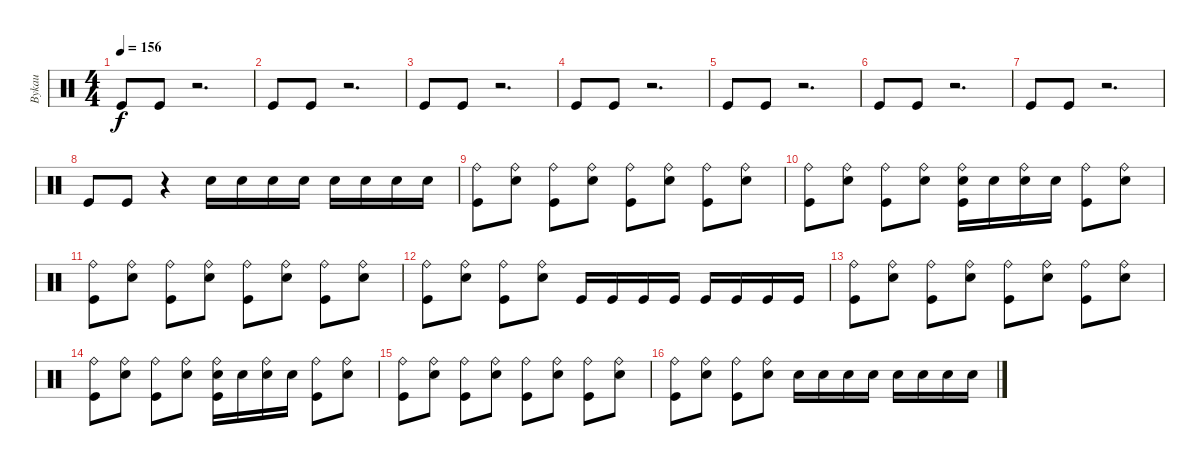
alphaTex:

\track ("Bykau" "Bykau") {instrument percussion}
\staff {score}
\articulation defaults
\ts (4 4)
\tempo 156
\clef neutral
\ks c "Kick (hit)".8{dy f} "Kick (hit)".8
r.2{d} |
"Kick (hit)".8 "Kick (hit)".8 r.2{d} |
"Kick (hit)".8 "Kick (hit)".8 r.2{d} |
"Kick (hit)".8 "Kick (hit)".8 r.2{d} |
"Kick (hit)".8 "Kick (hit)".8 r.2{d} |
"Kick (hit)".8 "Kick (hit)".8 r.2{d} |
"Kick (hit)".8 "Kick (hit)".8 r.2{d} |
"Kick (hit)".8 "Kick (hit)".8 r.4 "Electric Snare (hit)".16 "Electric Snare (hit)".16 "Electric Snare (hit)".16 "Electric Snare (hit)".16 "Electric Snare (hit)".16 "Electric Snare (hit)".16 "Electric Snare (hit)".16 "Electric Snare (hit)".16 |
("Ride (bell)" "Kick (hit)").8 ("Ride (bell)" "Electric Snare (hit)").8 ("Ride (bell)" "Kick (hit)").8 ("Ride (bell)" "Electric Snare (hit)").8 ("Ride (bell)" "Kick (hit)").8 ("Ride (bell)" "Electric Snare (hit)").8 ("Ride (bell)" "Kick (hit)").8 ("Ride (bell)" "Electric Snare (hit)").8 |
("Ride (bell)" "Kick (hit)").8 ("Ride (bell)" "Electric Snare (hit)").8 ("Ride (bell)" "Kick (hit)").8 ("Ride (bell)" "Electric Snare (hit)").8 ("Ride (bell)" "Electric Snare (hit)" "Kick (hit)").16 "Electric Snare (hit)".16 ("Ride (bell)" "Electric Snare (hit)").16 "Electric Snare (hit)".16 ("Ride (bell)" "Kick (hit)").8 ("Ride (bell)" "Electric Snare (hit)").8 |
("Ride (bell)" "Kick (hit)").8 ("Ride (bell)" "Electric Snare (hit)").8 ("Ride (bell)" "Kick (hit)").8 ("Ride (bell)" "Electric Snare (hit)").8 ("Ride (bell)" "Kick (hit)").8 ("Ride (bell)" "Electric Snare (hit)").8 ("Ride (bell)" "Kick (hit)").8 ("Ride (bell)" "Electric Snare (hit)").8 |
("Ride (bell)" "Kick (hit)").8 ("Ride (bell)" "Electric Snare (hit)").8 ("Ride (bell)" "Kick (hit)").8 ("Ride (bell)" "Electric Snare (hit)").8 "Kick (hit)".16 "Kick (hit)".16 "Kick (hit)".16 "Kick (hit)".16 "Kick (hit)".16 "Kick (hit)".16 "Kick (hit)".16 "Kick (hit)".16 |
("Ride (bell)" "Kick (hit)").8 ("Ride (bell)" "Electric Snare (hit)").8 ("Ride (bell)" "Kick (hit)").8 ("Ride (bell)" "Electric Snare (hit)").8 ("Ride (bell)" "Kick (hit)").8 ("Ride (bell)" "Electric Snare (hit)").8 ("Ride (bell)" "Kick (hit)").8 ("Ride (bell)" "Electric Snare (hit)").8 |
("Ride (bell)" "Kick (hit)").8 ("Ride (bell)" "Electric Snare (hit)").8 ("Ride (bell)" "Kick (hit)").8 ("Ride (bell)" "Electric Snare (hit)").8 ("Ride (bell)" "Electric Snare (hit)" "Kick (hit)").16 "Electric Snare (hit)".16 ("Ride (bell)" "Electric Snare (hit)").16 "Electric Snare (hit)".16 ("Ride (bell)" "Kick (hit)").8 ("Ride (bell)" "Electric Snare (hit)").8 |
("Ride (bell)" "Kick (hit)").8 ("Ride (bell)" "Electric Snare (hit)").8 ("Ride (bell)" "Kick (hit)").8 ("Ride (bell)" "Electric Snare (hit)").8 ("Ride (bell)" "Kick (hit)").8 ("Ride (bell)" "Electric Snare (hit)").8 ("Ride (bell)" "Kick (hit)").8 ("Ride (bell)" "Electric Snare (hit)").8 |
("Ride (bell)" "Kick (hit)").8 ("Ride (bell)" "Electric Snare (hit)").8 ("Ride (bell)" "Kick (hit)").8 ("Ride (bell)" "Electric Snare (hit)").8 "Electric Snare (hit)".16 "Electric Snare (hit)".16 "Electric Snare (hit)".16 "Electric Snare (hit)".16 "Electric Snare (hit)".16 "Electric Snare (hit)".16 "Electric Snare (hit)".16 "Electric Snare (hit)".16
